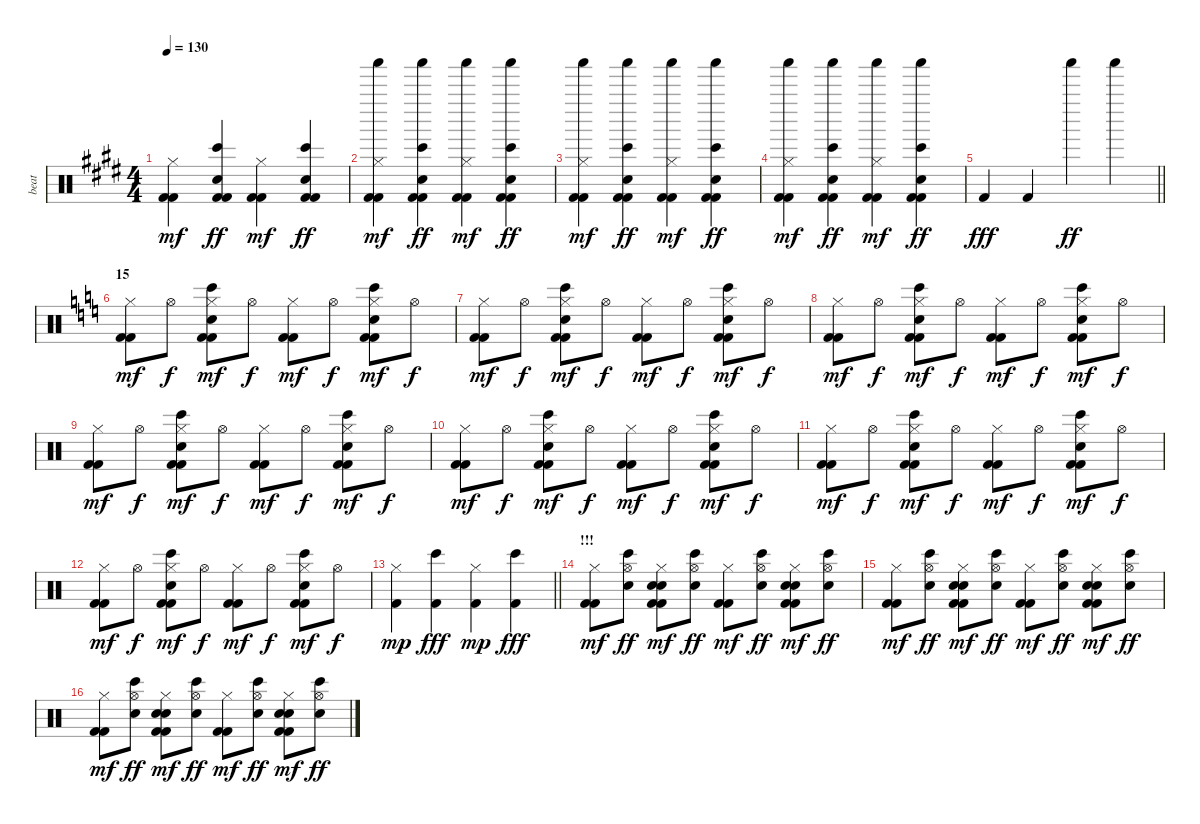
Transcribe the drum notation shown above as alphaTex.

\track ("beat" "beat") {instrument percussion}
\staff {score}
\articulation defaults
\ts (4 4)
\tempo 130
\clef neutral
\ks e
("Kick (hit) 2" "Kick (hit) 2" "Hi-Hat (closed)").4{dy mf} ("Kick (hit) 2" "Kick (hit) 2" "Bongo High (hit)" "Hand Clap (hit)").4{dy ff} ("Kick (hit) 2" "Kick (hit) 2" "Hi-Hat (closed)").4{dy mf} ("Kick (hit) 2" "Kick (hit) 2" "Bongo High (hit)" "Hand Clap (hit)").4{dy ff} |
("Kick (hit) 2" "Kick (hit) 2" "Shaker (hit)" "Hi-Hat (closed)").4{dy mf} ("Kick (hit) 2" "Kick (hit) 2" "Bongo High (hit)" "Hand Clap (hit)" "Shaker (hit)").4{dy ff} ("Kick (hit) 2" "Kick (hit) 2" "Shaker (hit)" "Hi-Hat (closed)").4{dy mf} ("Kick (hit) 2" "Kick (hit) 2" "Bongo High (hit)" "Hand Clap (hit)" "Shaker (hit)").4{dy ff} |
("Kick (hit) 2" "Kick (hit) 2" "Shaker (hit)" "Hi-Hat (closed)").4{dy mf} ("Kick (hit) 2" "Kick (hit) 2" "Bongo High (hit)" "Hand Clap (hit)" "Shaker (hit)").4{dy ff} ("Kick (hit) 2" "Kick (hit) 2" "Shaker (hit)" "Hi-Hat (closed)").4{dy mf} ("Kick (hit) 2" "Kick (hit) 2" "Bongo High (hit)" "Hand Clap (hit)" "Shaker (hit)").4{dy ff} |
("Kick (hit) 2" "Kick (hit) 2" "Shaker (hit)" "Hi-Hat (closed)").4{dy mf} ("Kick (hit) 2" "Kick (hit) 2" "Bongo High (hit)" "Hand Clap (hit)" "Shaker (hit)").4{dy ff} ("Kick (hit) 2" "Kick (hit) 2" "Shaker (hit)" "Hi-Hat (closed)").4{dy mf} ("Kick (hit) 2" "Kick (hit) 2" "Bongo High (hit)" "Hand Clap (hit)" "Shaker (hit)").4{dy ff} |
\barLineRight lightlight "Kick (hit) 2".4{dy fff} "Kick (hit) 2".4 "Shaker (hit)".4{dy ff} "Shaker (hit)".4
|
\section ("" "15")
\ks c
("Kick (hit) 2" "Kick (hit) 2" "Hi-Hat (closed)").8{dy mf} "Hi-Hat (open)".8{dy f} ("Kick (hit) 2" "Kick (hit) 2" "Bongo High (hit)" "Hand Clap (hit)" "Hi-Hat (closed)").8{dy mf} "Hi-Hat (open)".8{dy f} ("Kick (hit) 2" "Kick (hit) 2" "Hi-Hat (closed)").8{dy mf} "Hi-Hat (open)".8{dy f} ("Kick (hit) 2" "Kick (hit) 2" "Bongo High (hit)" "Hand Clap (hit)" "Hi-Hat (closed)").8{dy mf} "Hi-Hat (open)".8{dy f} |
("Kick (hit) 2" "Kick (hit) 2" "Hi-Hat (closed)").8{dy mf} "Hi-Hat (open)".8{dy f} ("Kick (hit) 2" "Kick (hit) 2" "Bongo High (hit)" "Hand Clap (hit)" "Hi-Hat (closed)").8{dy mf} "Hi-Hat (open)".8{dy f} ("Kick (hit) 2" "Kick (hit) 2" "Hi-Hat (closed)").8{dy mf} "Hi-Hat (open)".8{dy f} ("Kick (hit) 2" "Kick (hit) 2" "Bongo High (hit)" "Hand Clap (hit)" "Hi-Hat (closed)").8{dy mf} "Hi-Hat (open)".8{dy f} |
("Kick (hit) 2" "Kick (hit) 2" "Hi-Hat (closed)").8{dy mf} "Hi-Hat (open)".8{dy f} ("Kick (hit) 2" "Kick (hit) 2" "Bongo High (hit)" "Hand Clap (hit)" "Hi-Hat (closed)").8{dy mf} "Hi-Hat (open)".8{dy f} ("Kick (hit) 2" "Kick (hit) 2" "Hi-Hat (closed)").8{dy mf} "Hi-Hat (open)".8{dy f} ("Kick (hit) 2" "Kick (hit) 2" "Bongo High (hit)" "Hand Clap (hit)" "Hi-Hat (closed)").8{dy mf} "Hi-Hat (open)".8{dy f} |
("Kick (hit) 2" "Kick (hit) 2" "Hi-Hat (closed)").8{dy mf} "Hi-Hat (open)".8{dy f} ("Kick (hit) 2" "Kick (hit) 2" "Bongo High (hit)" "Hand Clap (hit)" "Hi-Hat (closed)").8{dy mf} "Hi-Hat (open)".8{dy f} ("Kick (hit) 2" "Kick (hit) 2" "Hi-Hat (closed)").8{dy mf} "Hi-Hat (open)".8{dy f} ("Kick (hit) 2" "Kick (hit) 2" "Bongo High (hit)" "Hand Clap (hit)" "Hi-Hat (closed)").8{dy mf} "Hi-Hat (open)".8{dy f} |
("Kick (hit) 2" "Kick (hit) 2" "Hi-Hat (closed)").8{dy mf} "Hi-Hat (open)".8{dy f} ("Kick (hit) 2" "Kick (hit) 2" "Bongo High (hit)" "Hand Clap (hit)" "Hi-Hat (closed)").8{dy mf} "Hi-Hat (open)".8{dy f} ("Kick (hit) 2" "Kick (hit) 2" "Hi-Hat (closed)").8{dy mf} "Hi-Hat (open)".8{dy f} ("Kick (hit) 2" "Kick (hit) 2" "Bongo High (hit)" "Hand Clap (hit)" "Hi-Hat (closed)").8{dy mf} "Hi-Hat (open)".8{dy f} |
("Kick (hit) 2" "Kick (hit) 2" "Hi-Hat (closed)").8{dy mf} "Hi-Hat (open)".8{dy f} ("Kick (hit) 2" "Kick (hit) 2" "Bongo High (hit)" "Hand Clap (hit)" "Hi-Hat (closed)").8{dy mf} "Hi-Hat (open)".8{dy f} ("Kick (hit) 2" "Kick (hit) 2" "Hi-Hat (closed)").8{dy mf} "Hi-Hat (open)".8{dy f} ("Kick (hit) 2" "Kick (hit) 2" "Bongo High (hit)" "Hand Clap (hit)" "Hi-Hat (closed)").8{dy mf} "Hi-Hat (open)".8{dy f} |
("Kick (hit) 2" "Kick (hit) 2" "Hi-Hat (closed)").8{dy mf} "Hi-Hat (open)".8{dy f} ("Kick (hit) 2" "Kick (hit) 2" "Bongo High (hit)" "Hand Clap (hit)" "Hi-Hat (closed)").8{dy mf} "Hi-Hat (open)".8{dy f} ("Kick (hit) 2" "Kick (hit) 2" "Hi-Hat (closed)").8{dy mf} "Hi-Hat (open)".8{dy f} ("Kick (hit) 2" "Kick (hit) 2" "Bongo High (hit)" "Hand Clap (hit)" "Hi-Hat (closed)").8{dy mf} "Hi-Hat (open)".8{dy f} |
\barLineRight lightlight
("Kick (hit) 2" "Hi-Hat (closed)").4{dy mp} ("Kick (hit) 2" "Bongo High (hit)").4{dy fff} ("Kick (hit) 2" "Hi-Hat (closed)").4{dy mp} ("Kick (hit) 2" "Bongo High (hit)").4{dy fff} |
\section ("" "!!!")
("Kick (hit) 2" "Kick (hit) 2" "Hi-Hat (closed)").8{dy mf} ("Bongo High (hit)" "Hand Clap (hit)" "Hi-Hat (open)").8{dy ff} ("Kick (hit) 2" "Kick (hit) 2" "Snare (hit) 2" "Electric Snare (hit)" "Hi-Hat (closed)").8{dy mf} ("Bongo High (hit)" "Hand Clap (hit)" "Hi-Hat (open)").8{dy ff} ("Kick (hit) 2" "Kick (hit) 2" "Hi-Hat (closed)").8{dy mf} ("Bongo High (hit)" "Hand Clap (hit)" "Hi-Hat (open)").8{dy ff} ("Kick (hit) 2" "Kick (hit) 2" "Snare (hit) 2" "Electric Snare (hit)" "Hi-Hat (closed)").8{dy mf} ("Bongo High (hit)" "Hand Clap (hit)" "Hi-Hat (open)").8{dy ff} |
("Kick (hit) 2" "Kick (hit) 2" "Hi-Hat (closed)").8{dy mf} ("Bongo High (hit)" "Hand Clap (hit)" "Hi-Hat (open)").8{dy ff} ("Kick (hit) 2" "Kick (hit) 2" "Snare (hit) 2" "Electric Snare (hit)" "Hi-Hat (closed)").8{dy mf} ("Bongo High (hit)" "Hand Clap (hit)" "Hi-Hat (open)").8{dy ff} ("Kick (hit) 2" "Kick (hit) 2" "Hi-Hat (closed)").8{dy mf} ("Bongo High (hit)" "Hand Clap (hit)" "Hi-Hat (open)").8{dy ff} ("Kick (hit) 2" "Kick (hit) 2" "Snare (hit) 2" "Electric Snare (hit)" "Hi-Hat (closed)").8{dy mf} ("Bongo High (hit)" "Hand Clap (hit)" "Hi-Hat (open)").8{dy ff} |
("Kick (hit) 2" "Kick (hit) 2" "Hi-Hat (closed)").8{dy mf} ("Bongo High (hit)" "Hand Clap (hit)" "Hi-Hat (open)").8{dy ff} ("Kick (hit) 2" "Kick (hit) 2" "Snare (hit) 2" "Electric Snare (hit)" "Hi-Hat (closed)").8{dy mf} ("Bongo High (hit)" "Hand Clap (hit)" "Hi-Hat (open)").8{dy ff} ("Kick (hit) 2" "Kick (hit) 2" "Hi-Hat (closed)").8{dy mf} ("Bongo High (hit)" "Hand Clap (hit)" "Hi-Hat (open)").8{dy ff} ("Kick (hit) 2" "Kick (hit) 2" "Snare (hit) 2" "Electric Snare (hit)" "Hi-Hat (closed)").8{dy mf} ("Bongo High (hit)" "Hand Clap (hit)" "Hi-Hat (open)").8{dy ff}
